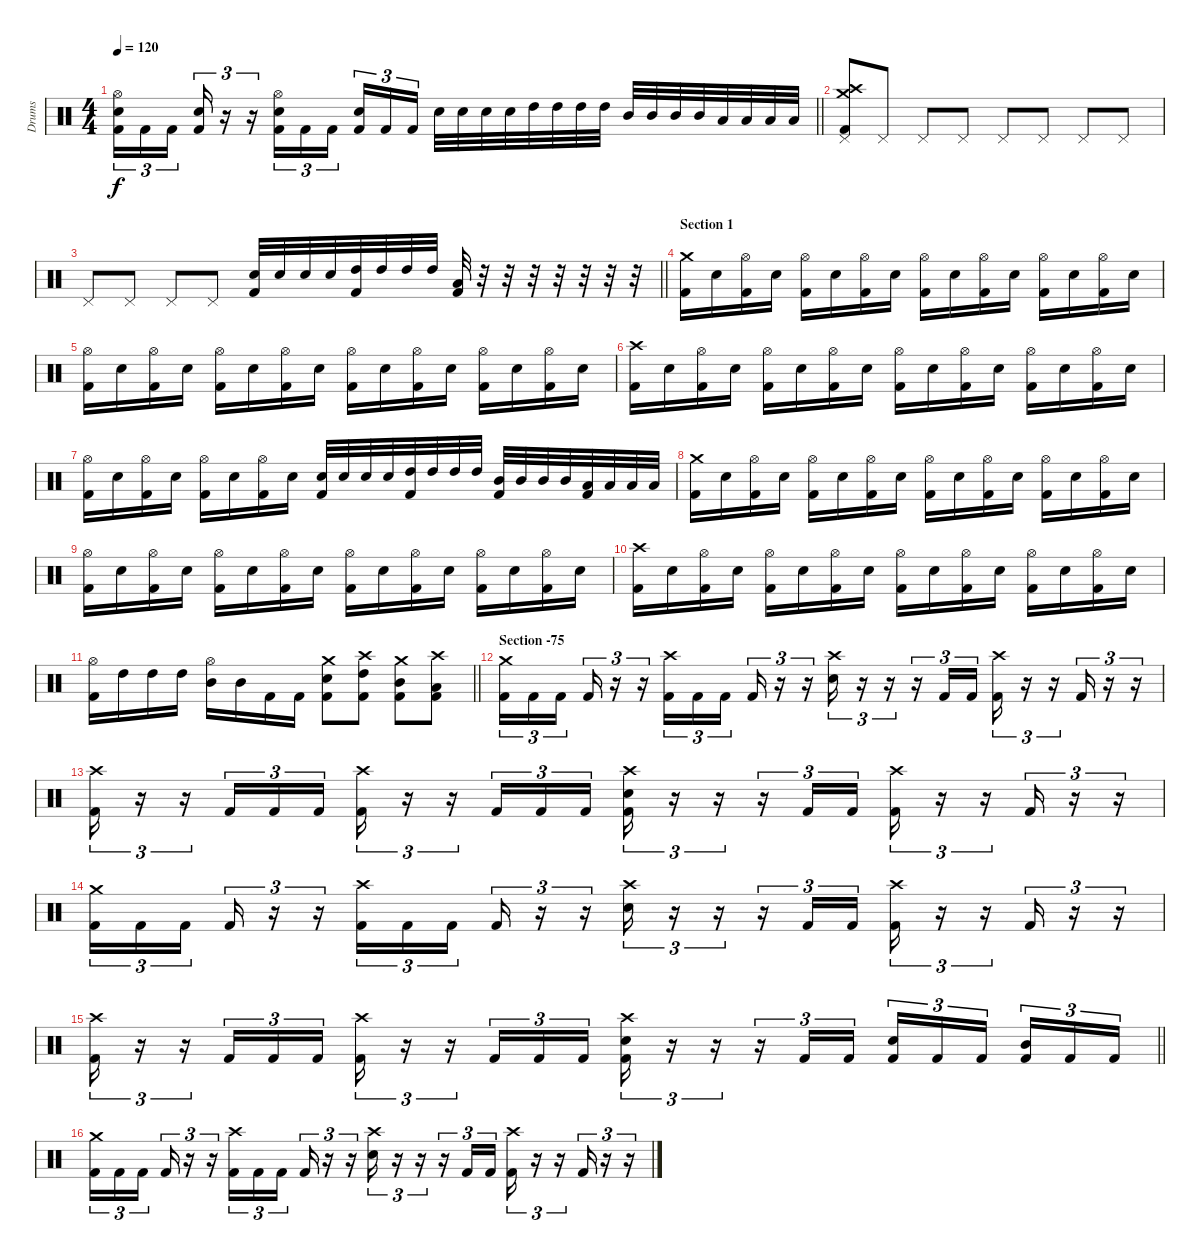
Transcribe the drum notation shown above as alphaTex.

\track ("Drums" "Drums") {instrument percussion}
\staff {score}
\articulation defaults
\ts (4 4)
\tempo 120
\clef neutral
\barLineRight lightlight
\ks c
("Hi-Hat (open)" "Snare (hit) 2" "Kick (hit) 2").16{tu (3 2) dy f} "Kick (hit) 2".16{tu (3 2)} "Kick (hit) 2".16{tu (3 2) beam splitsecondary} ("Snare (hit) 2" "Kick (hit) 2").16{tu (3 2)} r.16{tu (3 2)} r.16{tu (3 2)} ("Hi-Hat (open)" "Snare (hit) 2" "Kick (hit) 2").16{tu (3 2)} "Kick (hit) 2".16{tu (3 2)} "Kick (hit) 2".16{tu (3 2) beam splitsecondary} ("Snare (hit) 2" "Kick (hit) 2").16{tu (3 2)} "Kick (hit) 2".16{tu (3 2)} "Kick (hit) 2".16{tu (3 2)} "Snare (hit) 2".32 "Snare (hit) 2".32 "Snare (hit) 2".32 "Snare (hit) 2".32 "High Tom (hit)".32 "High Tom (hit)".32 "High Tom (hit)".32 "High Tom (hit)".32 "Mid Tom (hit)".32 "Mid Tom (hit)".32 "Mid Tom (hit)".32 "Mid Tom (hit)".32 "Low Tom (hit)".32 "Low Tom (hit)".32 "Low Tom (hit)".32 "Low Tom (hit)".32 |
("Crash high (hit)" "Crash medium (hit)" "Pedal Hi-Hat (hit)" "Kick (hit) 2").8 "Pedal Hi-Hat (hit)".8 "Pedal Hi-Hat (hit)".8 "Pedal Hi-Hat (hit)".8 "Pedal Hi-Hat (hit)".8 "Pedal Hi-Hat (hit)".8 "Pedal Hi-Hat (hit)".8 "Pedal Hi-Hat (hit)".8 |
\barLineRight lightlight "Pedal Hi-Hat (hit)".8 "Pedal Hi-Hat (hit)".8 "Pedal Hi-Hat (hit)".8 "Pedal Hi-Hat (hit)".8
("Snare (hit) 2" "Kick (hit) 2").32 "Snare (hit) 2".32 "Snare (hit) 2".32 "Snare (hit) 2".32 ("High Tom (hit)" "Kick (hit) 2").32 "High Tom (hit)".32 "High Tom (hit)".32 "High Tom (hit)".32 ("Low Tom (hit)" "Kick (hit) 2").32 r.32 r.32 r.32 r.32 r.32 r.32 r.32 |
\section ("" "Section 1")
("Crash medium (hit)" "Kick (hit) 2").16 "Snare (hit) 2".16 ("Hi-Hat (open)" "Kick (hit) 2").16 "Snare (hit) 2".16 ("Hi-Hat (open)" "Kick (hit) 2").16 "Snare (hit) 2".16 ("Hi-Hat (open)" "Kick (hit) 2").16 "Snare (hit) 2".16 ("Hi-Hat (open)" "Kick (hit) 2").16 "Snare (hit) 2".16 ("Hi-Hat (open)" "Kick (hit) 2").16 "Snare (hit) 2".16 ("Hi-Hat (open)" "Kick (hit) 2").16 "Snare (hit) 2".16 ("Hi-Hat (open)" "Kick (hit) 2").16 "Snare (hit) 2".16 |
("Hi-Hat (open)" "Kick (hit) 2").16 "Snare (hit) 2".16 ("Hi-Hat (open)" "Kick (hit) 2").16 "Snare (hit) 2".16 ("Hi-Hat (open)" "Kick (hit) 2").16 "Snare (hit) 2".16 ("Hi-Hat (open)" "Kick (hit) 2").16 "Snare (hit) 2".16 ("Hi-Hat (open)" "Kick (hit) 2").16 "Snare (hit) 2".16 ("Hi-Hat (open)" "Kick (hit) 2").16 "Snare (hit) 2".16 ("Hi-Hat (open)" "Kick (hit) 2").16 "Snare (hit) 2".16 ("Hi-Hat (open)" "Kick (hit) 2").16 "Snare (hit) 2".16 |
("Crash high (hit)" "Kick (hit) 2").16 "Snare (hit) 2".16 ("Hi-Hat (open)" "Kick (hit) 2").16 "Snare (hit) 2".16 ("Hi-Hat (open)" "Kick (hit) 2").16 "Snare (hit) 2".16 ("Hi-Hat (open)" "Kick (hit) 2").16 "Snare (hit) 2".16 ("Hi-Hat (open)" "Kick (hit) 2").16 "Snare (hit) 2".16 ("Hi-Hat (open)" "Kick (hit) 2").16 "Snare (hit) 2".16 ("Hi-Hat (open)" "Kick (hit) 2").16 "Snare (hit) 2".16 ("Hi-Hat (open)" "Kick (hit) 2").16 "Snare (hit) 2".16 |
("Hi-Hat (open)" "Kick (hit) 2").16 "Snare (hit) 2".16 ("Hi-Hat (open)" "Kick (hit) 2").16 "Snare (hit) 2".16 ("Hi-Hat (open)" "Kick (hit) 2").16 "Snare (hit) 2".16 ("Hi-Hat (open)" "Kick (hit) 2").16 "Snare (hit) 2".16 ("Snare (hit) 2" "Kick (hit) 2").32 "Snare (hit) 2".32 "Snare (hit) 2".32 "Snare (hit) 2".32 ("High Tom (hit)" "Kick (hit) 2").32 "High Tom (hit)".32 "High Tom (hit)".32 "High Tom (hit)".32 ("Mid Tom (hit)" "Kick (hit) 2").32 "Mid Tom (hit)".32 "Mid Tom (hit)".32 "Mid Tom (hit)".32 ("Low Tom (hit)" "Kick (hit) 2").32 "Low Tom (hit)".32 "Low Tom (hit)".32 "Low Tom (hit)".32 |
("Crash medium (hit)" "Kick (hit) 2").16 "Snare (hit) 2".16 ("Hi-Hat (open)" "Kick (hit) 2").16 "Snare (hit) 2".16 ("Hi-Hat (open)" "Kick (hit) 2").16 "Snare (hit) 2".16 ("Hi-Hat (open)" "Kick (hit) 2").16 "Snare (hit) 2".16 ("Hi-Hat (open)" "Kick (hit) 2").16 "Snare (hit) 2".16 ("Hi-Hat (open)" "Kick (hit) 2").16 "Snare (hit) 2".16 ("Hi-Hat (open)" "Kick (hit) 2").16 "Snare (hit) 2".16 ("Hi-Hat (open)" "Kick (hit) 2").16 "Snare (hit) 2".16 |
("Hi-Hat (open)" "Kick (hit) 2").16 "Snare (hit) 2".16 ("Hi-Hat (open)" "Kick (hit) 2").16 "Snare (hit) 2".16 ("Hi-Hat (open)" "Kick (hit) 2").16 "Snare (hit) 2".16 ("Hi-Hat (open)" "Kick (hit) 2").16 "Snare (hit) 2".16 ("Hi-Hat (open)" "Kick (hit) 2").16 "Snare (hit) 2".16 ("Hi-Hat (open)" "Kick (hit) 2").16 "Snare (hit) 2".16 ("Hi-Hat (open)" "Kick (hit) 2").16 "Snare (hit) 2".16 ("Hi-Hat (open)" "Kick (hit) 2").16 "Snare (hit) 2".16 |
("Crash high (hit)" "Kick (hit) 2").16 "Snare (hit) 2".16 ("Hi-Hat (open)" "Kick (hit) 2").16 "Snare (hit) 2".16 ("Hi-Hat (open)" "Kick (hit) 2").16 "Snare (hit) 2".16 ("Hi-Hat (open)" "Kick (hit) 2").16 "Snare (hit) 2".16 ("Hi-Hat (open)" "Kick (hit) 2").16 "Snare (hit) 2".16 ("Hi-Hat (open)" "Kick (hit) 2").16 "Snare (hit) 2".16 ("Hi-Hat (open)" "Kick (hit) 2").16 "Snare (hit) 2".16 ("Hi-Hat (open)" "Kick (hit) 2").16 "Snare (hit) 2".16 |
\barLineRight lightlight
("Hi-Hat (open)" "Kick (hit) 2").16 "High Tom (hit)".16 "High Tom (hit)".16 "High Tom (hit)".16 ("Hi-Hat (open)" "Mid Tom (hit)").16 "Mid Tom (hit)".16 "Kick (hit) 2".16 "Kick (hit) 2".16 ("Crash medium (hit)" "Snare (hit) 2" "Kick (hit) 2").8 ("Crash high (hit)" "High Tom (hit)" "Kick (hit) 2").8 ("Crash medium (hit)" "Mid Tom (hit)" "Kick (hit) 2").8 ("Crash high (hit)" "Low Tom (hit)" "Kick (hit) 2").8 |
\section ("" "Section -75")
("Crash medium (hit)" "Kick (hit) 2").16{tu (3 2)} "Kick (hit) 2".16{tu (3 2)} "Kick (hit) 2".16{tu (3 2) beam splitsecondary} "Kick (hit) 2".16{tu (3 2)} r.16{tu (3 2)} r.16{tu (3 2)} ("Crash high (hit)" "Kick (hit) 2").16{tu (3 2)} "Kick (hit) 2".16{tu (3 2)} "Kick (hit) 2".16{tu (3 2) beam splitsecondary} "Kick (hit) 2".16{tu (3 2)} r.16{tu (3 2)} r.16{tu (3 2)} ("Crash high (hit)" "Snare (hit) 2").16{tu (3 2)} r.16{tu (3 2)} r.16{tu (3 2)} r.16{tu (3 2)} "Kick (hit) 2".16{tu (3 2)} "Kick (hit) 2".16{tu (3 2)} ("Crash high (hit)" "Kick (hit) 2").16{tu (3 2)} r.16{tu (3 2)} r.16{tu (3 2)} "Kick (hit) 2".16{tu (3 2)} r.16{tu (3 2)} r.16{tu (3 2)} |
("Crash high (hit)" "Kick (hit) 2").16{tu (3 2)} r.16{tu (3 2)} r.16{tu (3 2)} "Kick (hit) 2".16{tu (3 2)} "Kick (hit) 2".16{tu (3 2)} "Kick (hit) 2".16{tu (3 2)} ("Crash high (hit)" "Kick (hit) 2").16{tu (3 2)} r.16{tu (3 2)} r.16{tu (3 2)} "Kick (hit) 2".16{tu (3 2)} "Kick (hit) 2".16{tu (3 2)} "Kick (hit) 2".16{tu (3 2)} ("Crash high (hit)" "Snare (hit) 2" "Kick (hit) 2").16{tu (3 2)} r.16{tu (3 2)} r.16{tu (3 2)} r.16{tu (3 2)} "Kick (hit) 2".16{tu (3 2)} "Kick (hit) 2".16{tu (3 2)} ("Crash high (hit)" "Kick (hit) 2").16{tu (3 2)} r.16{tu (3 2)} r.16{tu (3 2)} "Kick (hit) 2".16{tu (3 2)} r.16{tu (3 2)} r.16{tu (3 2)} |
("Crash medium (hit)" "Kick (hit) 2").16{tu (3 2)} "Kick (hit) 2".16{tu (3 2)} "Kick (hit) 2".16{tu (3 2) beam splitsecondary} "Kick (hit) 2".16{tu (3 2)} r.16{tu (3 2)} r.16{tu (3 2)} ("Crash high (hit)" "Kick (hit) 2").16{tu (3 2)} "Kick (hit) 2".16{tu (3 2)} "Kick (hit) 2".16{tu (3 2) beam splitsecondary} "Kick (hit) 2".16{tu (3 2)} r.16{tu (3 2)} r.16{tu (3 2)} ("Crash high (hit)" "Snare (hit) 2").16{tu (3 2)} r.16{tu (3 2)} r.16{tu (3 2)} r.16{tu (3 2)} "Kick (hit) 2".16{tu (3 2)} "Kick (hit) 2".16{tu (3 2)} ("Crash high (hit)" "Kick (hit) 2").16{tu (3 2)} r.16{tu (3 2)} r.16{tu (3 2)} "Kick (hit) 2".16{tu (3 2)} r.16{tu (3 2)} r.16{tu (3 2)} |
\barLineRight lightlight
("Crash high (hit)" "Kick (hit) 2").16{tu (3 2)} r.16{tu (3 2)} r.16{tu (3 2)} "Kick (hit) 2".16{tu (3 2)} "Kick (hit) 2".16{tu (3 2)} "Kick (hit) 2".16{tu (3 2)} ("Crash high (hit)" "Kick (hit) 2").16{tu (3 2)} r.16{tu (3 2)} r.16{tu (3 2)} "Kick (hit) 2".16{tu (3 2)} "Kick (hit) 2".16{tu (3 2)} "Kick (hit) 2".16{tu (3 2)} ("Crash high (hit)" "Snare (hit) 2" "Kick (hit) 2").16{tu (3 2)} r.16{tu (3 2)} r.16{tu (3 2)} r.16{tu (3 2)} "Kick (hit) 2".16{tu (3 2)} "Kick (hit) 2".16{tu (3 2)} ("Snare (hit) 2" "Kick (hit) 2").16{tu (3 2)} "Kick (hit) 2".16{tu (3 2)} "Kick (hit) 2".16{tu (3 2) beam splitsecondary} ("Mid Tom (hit)" "Kick (hit) 2").16{tu (3 2)} "Kick (hit) 2".16{tu (3 2)} "Kick (hit) 2".16{tu (3 2)} |
("Crash medium (hit)" "Kick (hit) 2").16{tu (3 2)} "Kick (hit) 2".16{tu (3 2)} "Kick (hit) 2".16{tu (3 2) beam splitsecondary} "Kick (hit) 2".16{tu (3 2)} r.16{tu (3 2)} r.16{tu (3 2)} ("Crash high (hit)" "Kick (hit) 2").16{tu (3 2)} "Kick (hit) 2".16{tu (3 2)} "Kick (hit) 2".16{tu (3 2) beam splitsecondary} "Kick (hit) 2".16{tu (3 2)} r.16{tu (3 2)} r.16{tu (3 2)} ("Crash high (hit)" "Snare (hit) 2").16{tu (3 2)} r.16{tu (3 2)} r.16{tu (3 2)} r.16{tu (3 2)} "Kick (hit) 2".16{tu (3 2)} "Kick (hit) 2".16{tu (3 2)} ("Crash high (hit)" "Kick (hit) 2").16{tu (3 2)} r.16{tu (3 2)} r.16{tu (3 2)} "Kick (hit) 2".16{tu (3 2)} r.16{tu (3 2)} r.16{tu (3 2)}
